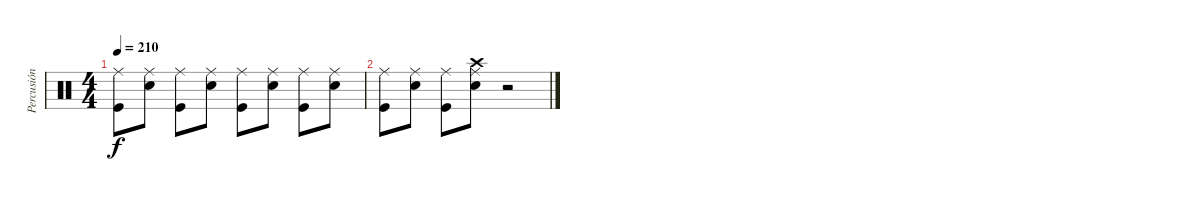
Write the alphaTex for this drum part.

\track ("Percusión" "Percusión") {instrument percussion}
\staff {score}
\articulation defaults
\ts (4 4)
\tempo 210
\clef neutral
\ks c
("Ride (middle)" "Kick (hit)").8{dy f} ("Ride (middle)" "Snare (hit) 2").8 ("Ride (middle)" "Kick (hit)").8 ("Ride (middle)" "Snare (hit) 2").8 ("Ride (middle)" "Kick (hit)").8 ("Ride (middle)" "Snare (hit) 2").8 ("Ride (middle)" "Kick (hit)").8 ("Ride (middle)" "Snare (hit) 2").8 |
("Ride (middle)" "Kick (hit)").8 ("Ride (middle)" "Snare (hit) 2").8 ("Ride (middle)" "Kick (hit)").8 ("Ride (middle)" "Snare (hit) 2" "Crash high (hit)").8 r.2
